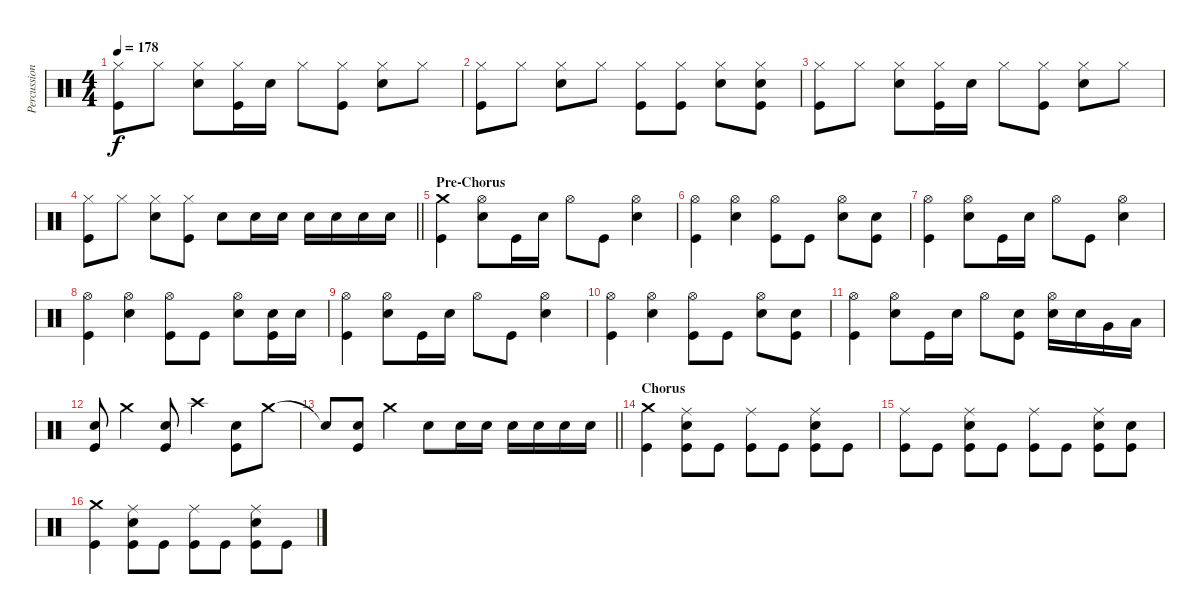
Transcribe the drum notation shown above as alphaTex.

\track ("Percussion" "Percussion") {instrument percussion}
\staff {score}
\articulation defaults
\ts (4 4)
\tempo 178
\clef neutral
\ks c
("Hi-Hat (closed)" "Kick (hit)").8{dy f} "Hi-Hat (closed)".8 ("Hi-Hat (closed)" "Electric Snare (hit)").8 ("Hi-Hat (closed)" "Kick (hit)").16 "Electric Snare (hit)".16 "Hi-Hat (closed)".8 ("Hi-Hat (closed)" "Kick (hit)").8 ("Hi-Hat (closed)" "Electric Snare (hit)").8 "Hi-Hat (closed)".8 |
("Hi-Hat (closed)" "Kick (hit)").8 "Hi-Hat (closed)".8 ("Hi-Hat (closed)" "Electric Snare (hit)").8 "Hi-Hat (closed)".8 ("Hi-Hat (closed)" "Kick (hit)").8 ("Hi-Hat (closed)" "Kick (hit)").8 ("Hi-Hat (closed)" "Electric Snare (hit)").8 ("Hi-Hat (closed)" "Electric Snare (hit)" "Kick (hit)").8 |
("Hi-Hat (closed)" "Kick (hit)").8 "Hi-Hat (closed)".8 ("Hi-Hat (closed)" "Electric Snare (hit)").8 ("Hi-Hat (closed)" "Kick (hit)").16 "Electric Snare (hit)".16 "Hi-Hat (closed)".8 ("Hi-Hat (closed)" "Kick (hit)").8 ("Hi-Hat (closed)" "Electric Snare (hit)").8 "Hi-Hat (closed)".8 |
\barLineRight lightlight
("Hi-Hat (closed)" "Kick (hit)").8 "Hi-Hat (closed)".8 ("Hi-Hat (closed)" "Electric Snare (hit)").8 ("Hi-Hat (closed)" "Kick (hit)").8 "Electric Snare (hit)".8 "Electric Snare (hit)".16 "Electric Snare (hit)".16 "Electric Snare (hit)".16 "Electric Snare (hit)".16 "Electric Snare (hit)".16 "Electric Snare (hit)".16 |
\section ("" "Pre-Chorus")
("Crash medium (hit)" "Kick (hit)").4 ("Hi-Hat (open)" "Electric Snare (hit)").8 "Kick (hit)".16 "Electric Snare (hit)".16 "Hi-Hat (open)".8 "Kick (hit)".8 ("Hi-Hat (open)" "Electric Snare (hit)").4 |
("Hi-Hat (open)" "Kick (hit)").4 ("Hi-Hat (open)" "Electric Snare (hit)").4 ("Hi-Hat (open)" "Kick (hit)").8 "Kick (hit)".8 ("Hi-Hat (open)" "Electric Snare (hit)").8 ("Electric Snare (hit)" "Kick (hit)").8 |
("Hi-Hat (open)" "Kick (hit)").4 ("Hi-Hat (open)" "Electric Snare (hit)").8 "Kick (hit)".16 "Electric Snare (hit)".16 "Hi-Hat (open)".8 "Kick (hit)".8 ("Hi-Hat (open)" "Electric Snare (hit)").4 |
("Hi-Hat (open)" "Kick (hit)").4 ("Hi-Hat (open)" "Electric Snare (hit)").4 ("Hi-Hat (open)" "Kick (hit)").8 "Kick (hit)".8 ("Hi-Hat (open)" "Electric Snare (hit)").8 ("Electric Snare (hit)" "Kick (hit)").16 "Electric Snare (hit)".16 |
("Hi-Hat (open)" "Kick (hit)").4 ("Hi-Hat (open)" "Electric Snare (hit)").8 "Kick (hit)".16 "Electric Snare (hit)".16 "Hi-Hat (open)".8 "Kick (hit)".8 ("Hi-Hat (open)" "Electric Snare (hit)").4 |
("Hi-Hat (open)" "Kick (hit)").4 ("Hi-Hat (open)" "Electric Snare (hit)").4 ("Hi-Hat (open)" "Kick (hit)").8 "Kick (hit)".8 ("Hi-Hat (open)" "Electric Snare (hit)").8 ("Electric Snare (hit)" "Kick (hit)").8 |
("Hi-Hat (open)" "Kick (hit)").4 ("Hi-Hat (open)" "Electric Snare (hit)").8 "Kick (hit)".16 "Electric Snare (hit)".16 "Hi-Hat (open)".8 ("Electric Snare (hit)" "Kick (hit)").8 ("Hi-Hat (open)" "Electric Snare (hit)").16 "Electric Snare (hit)".16 "Very Low Tom (hit)".16 "Low Floor Tom (hit)".16 |
("Electric Snare (hit)" "Kick (hit)").8 "Crash medium (hit)".4 ("Electric Snare (hit)" "Kick (hit)").8 "Crash high (hit)".4 ("Electric Snare (hit)" "Kick (hit)").8 "Crash medium (hit)".8 |
\barLineRight lightlight "Snare (hit)"{t}.8
("Electric Snare (hit)" "Kick (hit)").8 "Crash medium (hit)".4 "Electric Snare (hit)".8 "Electric Snare (hit)".16 "Electric Snare (hit)".16 "Electric Snare (hit)".16 "Electric Snare (hit)".16 "Electric Snare (hit)".16 "Electric Snare (hit)".16 |
\section ("" "Chorus")
("Crash medium (hit)" "Kick (hit)").4 ("Ride (middle)" "Electric Snare (hit)" "Kick (hit)").8 "Kick (hit)".8 ("Ride (middle)" "Kick (hit)").8 "Kick (hit)".8 ("Ride (middle)" "Electric Snare (hit)" "Kick (hit)").8 "Kick (hit)".8 |
("Ride (middle)" "Kick (hit)").8 "Kick (hit)".8 ("Ride (middle)" "Electric Snare (hit)" "Kick (hit)").8 "Kick (hit)".8 ("Ride (middle)" "Kick (hit)").8 "Kick (hit)".8 ("Ride (middle)" "Electric Snare (hit)" "Kick (hit)").8 ("Electric Snare (hit)" "Kick (hit)").8 |
("Crash medium (hit)" "Kick (hit)").4 ("Ride (middle)" "Electric Snare (hit)" "Kick (hit)").8 "Kick (hit)".8 ("Ride (middle)" "Kick (hit)").8 "Kick (hit)".8 ("Ride (middle)" "Electric Snare (hit)" "Kick (hit)").8 "Kick (hit)".8
